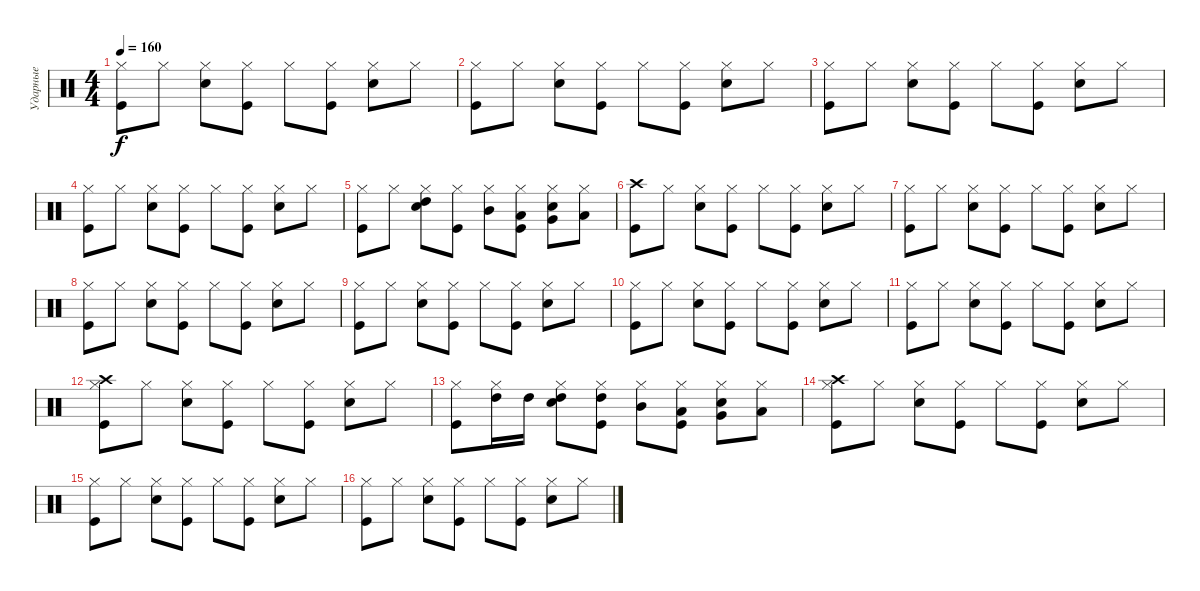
\track ("Ударные" "Ударные") {instrument percussion}
\staff {score}
\articulation defaults
\ts (4 4)
\tempo 160
\clef neutral
\ks c
("Kick (hit)" "Hi-Hat (closed)").8{dy f} "Hi-Hat (closed)".8 ("Snare (hit) 2" "Hi-Hat (closed)").8 ("Kick (hit)" "Hi-Hat (closed)").8 "Hi-Hat (closed)".8 ("Kick (hit)" "Hi-Hat (closed)").8 ("Snare (hit) 2" "Hi-Hat (closed)").8 "Hi-Hat (closed)".8 |
("Kick (hit)" "Hi-Hat (closed)").8 "Hi-Hat (closed)".8 ("Snare (hit) 2" "Hi-Hat (closed)").8 ("Kick (hit)" "Hi-Hat (closed)").8 "Hi-Hat (closed)".8 ("Kick (hit)" "Hi-Hat (closed)").8 ("Snare (hit) 2" "Hi-Hat (closed)").8 "Hi-Hat (closed)".8 |
("Kick (hit)" "Hi-Hat (closed)").8 "Hi-Hat (closed)".8 ("Snare (hit) 2" "Hi-Hat (closed)").8 ("Kick (hit)" "Hi-Hat (closed)").8 "Hi-Hat (closed)".8 ("Kick (hit)" "Hi-Hat (closed)").8 ("Snare (hit) 2" "Hi-Hat (closed)").8 "Hi-Hat (closed)".8 |
("Kick (hit)" "Hi-Hat (closed)").8 "Hi-Hat (closed)".8 ("Snare (hit) 2" "Hi-Hat (closed)").8 ("Kick (hit)" "Hi-Hat (closed)").8 "Hi-Hat (closed)".8 ("Kick (hit)" "Hi-Hat (closed)").8 ("Snare (hit) 2" "Hi-Hat (closed)").8 "Hi-Hat (closed)".8 |
("Kick (hit)" "Hi-Hat (closed)").8 "Hi-Hat (closed)".8 ("Snare (hit) 2" "High Tom (hit)" "Hi-Hat (closed)").8 ("Kick (hit)" "Hi-Hat (closed)").8 ("Mid Tom (hit)" "Hi-Hat (closed)").8 ("Kick (hit)" "Low Tom (hit)" "Hi-Hat (closed)").8 ("Snare (hit) 2" "Very Low Tom (hit)" "Hi-Hat (closed)").8 ("Low Floor Tom (hit)" "Hi-Hat (closed)").8 |
("Kick (hit)" "Crash high (hit)").8 "Hi-Hat (closed)".8 ("Snare (hit) 2" "Hi-Hat (closed)").8 ("Kick (hit)" "Hi-Hat (closed)").8 "Hi-Hat (closed)".8 ("Kick (hit)" "Hi-Hat (closed)").8 ("Snare (hit) 2" "Hi-Hat (closed)").8 "Hi-Hat (closed)".8 |
("Kick (hit)" "Hi-Hat (closed)").8 "Hi-Hat (closed)".8 ("Snare (hit) 2" "Hi-Hat (closed)").8 ("Kick (hit)" "Hi-Hat (closed)").8 "Hi-Hat (closed)".8 ("Kick (hit)" "Hi-Hat (closed)").8 ("Snare (hit) 2" "Hi-Hat (closed)").8 "Hi-Hat (closed)".8 |
("Kick (hit)" "Hi-Hat (closed)").8 "Hi-Hat (closed)".8 ("Snare (hit) 2" "Hi-Hat (closed)").8 ("Kick (hit)" "Hi-Hat (closed)").8 "Hi-Hat (closed)".8 ("Kick (hit)" "Hi-Hat (closed)").8 ("Snare (hit) 2" "Hi-Hat (closed)").8 "Hi-Hat (closed)".8 |
("Kick (hit)" "Hi-Hat (closed)").8 "Hi-Hat (closed)".8 ("Snare (hit) 2" "Hi-Hat (closed)").8 ("Kick (hit)" "Hi-Hat (closed)").8 "Hi-Hat (closed)".8 ("Kick (hit)" "Hi-Hat (closed)").8 ("Snare (hit) 2" "Hi-Hat (closed)").8 "Hi-Hat (closed)".8 |
("Kick (hit)" "Hi-Hat (closed)").8 "Hi-Hat (closed)".8 ("Snare (hit) 2" "Hi-Hat (closed)").8 ("Kick (hit)" "Hi-Hat (closed)").8 "Hi-Hat (closed)".8 ("Kick (hit)" "Hi-Hat (closed)").8 ("Snare (hit) 2" "Hi-Hat (closed)").8 "Hi-Hat (closed)".8 |
("Kick (hit)" "Hi-Hat (closed)").8 "Hi-Hat (closed)".8 ("Snare (hit) 2" "Hi-Hat (closed)").8 ("Kick (hit)" "Hi-Hat (closed)").8 "Hi-Hat (closed)".8 ("Kick (hit)" "Hi-Hat (closed)").8 ("Snare (hit) 2" "Hi-Hat (closed)").8 "Hi-Hat (closed)".8 |
("Kick (hit)" "Crash high (hit)" "Hi-Hat (closed)").8 "Hi-Hat (closed)".8 ("Snare (hit) 2" "Hi-Hat (closed)").8 ("Kick (hit)" "Hi-Hat (closed)").8 "Hi-Hat (closed)".8 ("Kick (hit)" "Hi-Hat (closed)").8 ("Snare (hit) 2" "Hi-Hat (closed)").8 "Hi-Hat (closed)".8 |
("Kick (hit)" "Hi-Hat (closed)").8 ("High Tom (hit)" "Hi-Hat (closed)").16 "High Tom (hit)".16 ("Snare (hit) 2" "High Tom (hit)" "Hi-Hat (closed)").8 ("Kick (hit)" "High Tom (hit)" "Hi-Hat (closed)").8 ("Mid Tom (hit)" "Hi-Hat (closed)").8 ("Kick (hit)" "Low Tom (hit)" "Hi-Hat (closed)").8 ("Snare (hit) 2" "Very Low Tom (hit)" "Hi-Hat (closed)").8 ("Low Floor Tom (hit)" "Hi-Hat (closed)").8 |
("Kick (hit)" "Crash high (hit)" "Hi-Hat (closed)").8 "Hi-Hat (closed)".8 ("Snare (hit) 2" "Hi-Hat (closed)").8 ("Kick (hit)" "Hi-Hat (closed)").8 "Hi-Hat (closed)".8 ("Kick (hit)" "Hi-Hat (closed)").8 ("Snare (hit) 2" "Hi-Hat (closed)").8 "Hi-Hat (closed)".8 |
("Kick (hit)" "Hi-Hat (closed)").8 "Hi-Hat (closed)".8 ("Snare (hit) 2" "Hi-Hat (closed)").8 ("Kick (hit)" "Hi-Hat (closed)").8 "Hi-Hat (closed)".8 ("Kick (hit)" "Hi-Hat (closed)").8 ("Snare (hit) 2" "Hi-Hat (closed)").8 "Hi-Hat (closed)".8 |
("Kick (hit)" "Hi-Hat (closed)").8 "Hi-Hat (closed)".8 ("Snare (hit) 2" "Hi-Hat (closed)").8 ("Kick (hit)" "Hi-Hat (closed)").8 "Hi-Hat (closed)".8 ("Kick (hit)" "Hi-Hat (closed)").8 ("Snare (hit) 2" "Hi-Hat (closed)").8 "Hi-Hat (closed)".8
